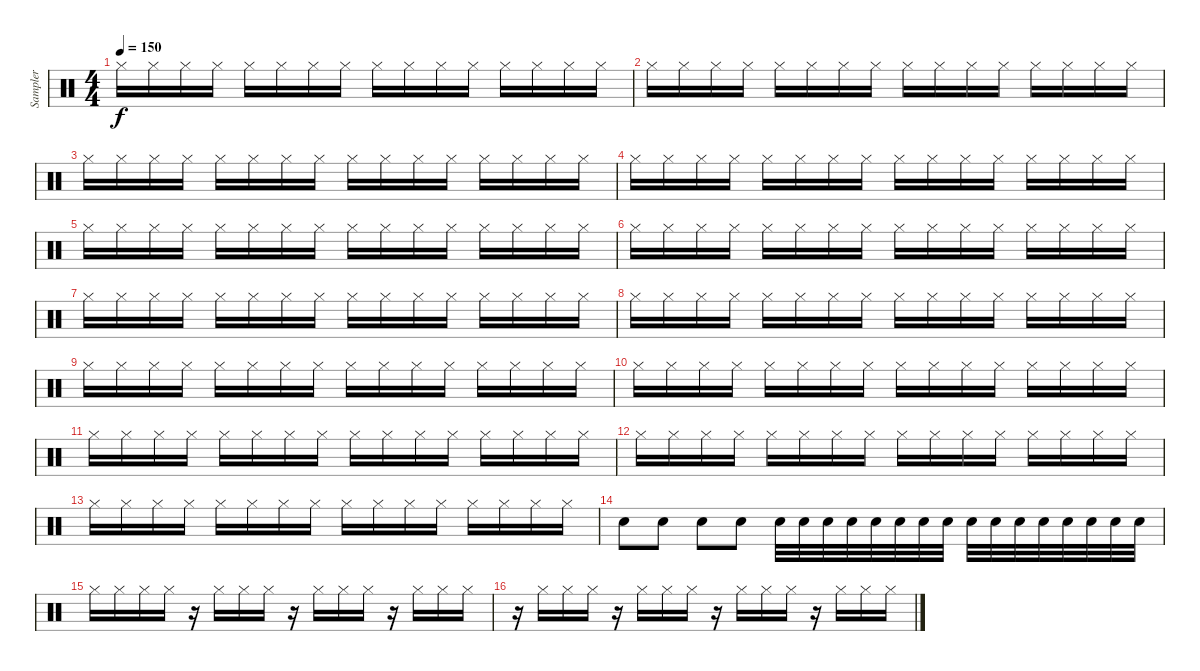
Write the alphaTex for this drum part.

\track ("Sampler" "Sampler") {instrument percussion}
\staff {score}
\articulation defaults
\ts (4 4)
\tempo 150
\clef neutral
\ks c "Hi-Hat (closed)".16{dy f} "Hi-Hat (closed)".16 "Hi-Hat (closed)".16 "Hi-Hat (closed)".16 "Hi-Hat (closed)".16 "Hi-Hat (closed)".16 "Hi-Hat (closed)".16 "Hi-Hat (closed)".16 "Hi-Hat (closed)".16 "Hi-Hat (closed)".16 "Hi-Hat (closed)".16 "Hi-Hat (closed)".16 "Hi-Hat (closed)".16 "Hi-Hat (closed)".16 "Hi-Hat (closed)".16 "Hi-Hat (closed)".16
|
"Hi-Hat (closed)".16 "Hi-Hat (closed)".16 "Hi-Hat (closed)".16 "Hi-Hat (closed)".16 "Hi-Hat (closed)".16 "Hi-Hat (closed)".16 "Hi-Hat (closed)".16 "Hi-Hat (closed)".16 "Hi-Hat (closed)".16 "Hi-Hat (closed)".16 "Hi-Hat (closed)".16 "Hi-Hat (closed)".16 "Hi-Hat (closed)".16 "Hi-Hat (closed)".16 "Hi-Hat (closed)".16 "Hi-Hat (closed)".16 |
"Hi-Hat (closed)".16 "Hi-Hat (closed)".16 "Hi-Hat (closed)".16 "Hi-Hat (closed)".16 "Hi-Hat (closed)".16 "Hi-Hat (closed)".16 "Hi-Hat (closed)".16 "Hi-Hat (closed)".16 "Hi-Hat (closed)".16 "Hi-Hat (closed)".16 "Hi-Hat (closed)".16 "Hi-Hat (closed)".16 "Hi-Hat (closed)".16 "Hi-Hat (closed)".16 "Hi-Hat (closed)".16 "Hi-Hat (closed)".16 |
"Hi-Hat (closed)".16 "Hi-Hat (closed)".16 "Hi-Hat (closed)".16 "Hi-Hat (closed)".16 "Hi-Hat (closed)".16 "Hi-Hat (closed)".16 "Hi-Hat (closed)".16 "Hi-Hat (closed)".16 "Hi-Hat (closed)".16 "Hi-Hat (closed)".16 "Hi-Hat (closed)".16 "Hi-Hat (closed)".16 "Hi-Hat (closed)".16 "Hi-Hat (closed)".16 "Hi-Hat (closed)".16 "Hi-Hat (closed)".16 |
"Hi-Hat (closed)".16 "Hi-Hat (closed)".16 "Hi-Hat (closed)".16 "Hi-Hat (closed)".16 "Hi-Hat (closed)".16 "Hi-Hat (closed)".16 "Hi-Hat (closed)".16 "Hi-Hat (closed)".16 "Hi-Hat (closed)".16 "Hi-Hat (closed)".16 "Hi-Hat (closed)".16 "Hi-Hat (closed)".16 "Hi-Hat (closed)".16 "Hi-Hat (closed)".16 "Hi-Hat (closed)".16 "Hi-Hat (closed)".16 |
"Hi-Hat (closed)".16 "Hi-Hat (closed)".16 "Hi-Hat (closed)".16 "Hi-Hat (closed)".16 "Hi-Hat (closed)".16 "Hi-Hat (closed)".16 "Hi-Hat (closed)".16 "Hi-Hat (closed)".16 "Hi-Hat (closed)".16 "Hi-Hat (closed)".16 "Hi-Hat (closed)".16 "Hi-Hat (closed)".16 "Hi-Hat (closed)".16 "Hi-Hat (closed)".16 "Hi-Hat (closed)".16 "Hi-Hat (closed)".16 |
"Hi-Hat (closed)".16 "Hi-Hat (closed)".16 "Hi-Hat (closed)".16 "Hi-Hat (closed)".16 "Hi-Hat (closed)".16 "Hi-Hat (closed)".16 "Hi-Hat (closed)".16 "Hi-Hat (closed)".16 "Hi-Hat (closed)".16 "Hi-Hat (closed)".16 "Hi-Hat (closed)".16 "Hi-Hat (closed)".16 "Hi-Hat (closed)".16 "Hi-Hat (closed)".16 "Hi-Hat (closed)".16 "Hi-Hat (closed)".16 |
"Hi-Hat (closed)".16 "Hi-Hat (closed)".16 "Hi-Hat (closed)".16 "Hi-Hat (closed)".16 "Hi-Hat (closed)".16 "Hi-Hat (closed)".16 "Hi-Hat (closed)".16 "Hi-Hat (closed)".16 "Hi-Hat (closed)".16 "Hi-Hat (closed)".16 "Hi-Hat (closed)".16 "Hi-Hat (closed)".16 "Hi-Hat (closed)".16 "Hi-Hat (closed)".16 "Hi-Hat (closed)".16 "Hi-Hat (closed)".16 |
"Hi-Hat (closed)".16 "Hi-Hat (closed)".16 "Hi-Hat (closed)".16 "Hi-Hat (closed)".16 "Hi-Hat (closed)".16 "Hi-Hat (closed)".16 "Hi-Hat (closed)".16 "Hi-Hat (closed)".16 "Hi-Hat (closed)".16 "Hi-Hat (closed)".16 "Hi-Hat (closed)".16 "Hi-Hat (closed)".16 "Hi-Hat (closed)".16 "Hi-Hat (closed)".16 "Hi-Hat (closed)".16 "Hi-Hat (closed)".16 |
"Hi-Hat (closed)".16 "Hi-Hat (closed)".16 "Hi-Hat (closed)".16 "Hi-Hat (closed)".16 "Hi-Hat (closed)".16 "Hi-Hat (closed)".16 "Hi-Hat (closed)".16 "Hi-Hat (closed)".16 "Hi-Hat (closed)".16 "Hi-Hat (closed)".16 "Hi-Hat (closed)".16 "Hi-Hat (closed)".16 "Hi-Hat (closed)".16 "Hi-Hat (closed)".16 "Hi-Hat (closed)".16 "Hi-Hat (closed)".16 |
"Hi-Hat (closed)".16 "Hi-Hat (closed)".16 "Hi-Hat (closed)".16 "Hi-Hat (closed)".16 "Hi-Hat (closed)".16 "Hi-Hat (closed)".16 "Hi-Hat (closed)".16 "Hi-Hat (closed)".16 "Hi-Hat (closed)".16 "Hi-Hat (closed)".16 "Hi-Hat (closed)".16 "Hi-Hat (closed)".16 "Hi-Hat (closed)".16 "Hi-Hat (closed)".16 "Hi-Hat (closed)".16 "Hi-Hat (closed)".16 |
"Hi-Hat (closed)".16 "Hi-Hat (closed)".16 "Hi-Hat (closed)".16 "Hi-Hat (closed)".16 "Hi-Hat (closed)".16 "Hi-Hat (closed)".16 "Hi-Hat (closed)".16 "Hi-Hat (closed)".16 "Hi-Hat (closed)".16 "Hi-Hat (closed)".16 "Hi-Hat (closed)".16 "Hi-Hat (closed)".16 "Hi-Hat (closed)".16 "Hi-Hat (closed)".16 "Hi-Hat (closed)".16 "Hi-Hat (closed)".16 |
"Hi-Hat (closed)".16 "Hi-Hat (closed)".16 "Hi-Hat (closed)".16 "Hi-Hat (closed)".16 "Hi-Hat (closed)".16 "Hi-Hat (closed)".16 "Hi-Hat (closed)".16 "Hi-Hat (closed)".16 "Hi-Hat (closed)".16 "Hi-Hat (closed)".16 "Hi-Hat (closed)".16 "Hi-Hat (closed)".16 "Hi-Hat (closed)".16 "Hi-Hat (closed)".16 "Hi-Hat (closed)".16 "Hi-Hat (closed)".16 |
"Hand Clap (hit)".8 "Hand Clap (hit)".8 "Hand Clap (hit)".8 "Hand Clap (hit)".8 "Hand Clap (hit)".32 "Hand Clap (hit)".32 "Hand Clap (hit)".32 "Hand Clap (hit)".32 "Hand Clap (hit)".32 "Hand Clap (hit)".32 "Hand Clap (hit)".32 "Hand Clap (hit)".32 "Hand Clap (hit)".32 "Hand Clap (hit)".32 "Hand Clap (hit)".32 "Hand Clap (hit)".32 "Hand Clap (hit)".32 "Hand Clap (hit)".32 "Hand Clap (hit)".32 "Hand Clap (hit)".32 |
"Hi-Hat (closed)".16 "Hi-Hat (closed)".16 "Hi-Hat (closed)".16 "Hi-Hat (closed)".16 r.16 "Hi-Hat (closed)".16 "Hi-Hat (closed)".16 "Hi-Hat (closed)".16 r.16 "Hi-Hat (closed)".16 "Hi-Hat (closed)".16 "Hi-Hat (closed)".16 r.16 "Hi-Hat (closed)".16 "Hi-Hat (closed)".16 "Hi-Hat (closed)".16 |
r.16 "Hi-Hat (closed)".16 "Hi-Hat (closed)".16 "Hi-Hat (closed)".16 r.16 "Hi-Hat (closed)".16 "Hi-Hat (closed)".16 "Hi-Hat (closed)".16 r.16 "Hi-Hat (closed)".16 "Hi-Hat (closed)".16 "Hi-Hat (closed)".16 r.16 "Hi-Hat (closed)".16 "Hi-Hat (closed)".16 "Hi-Hat (closed)".16
